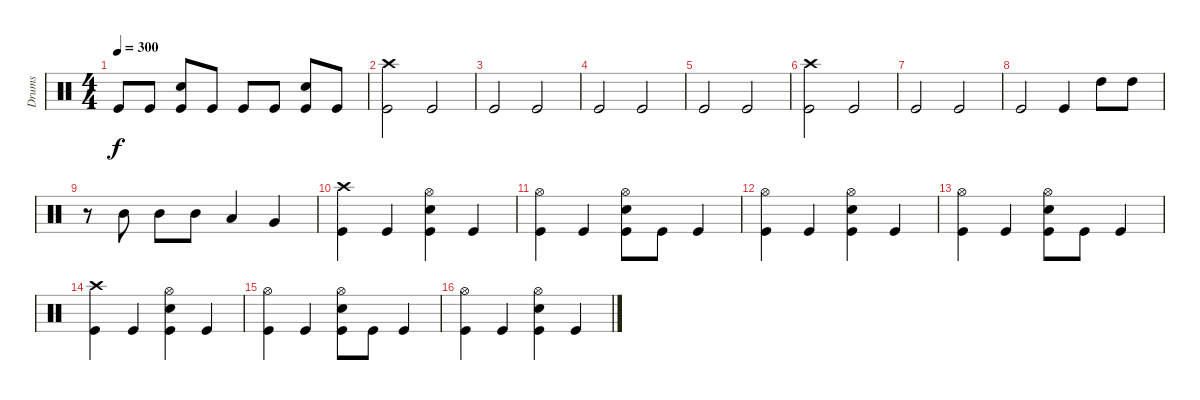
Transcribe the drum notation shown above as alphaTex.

\track ("Drums" "Drums") {instrument percussion}
\staff {score}
\articulation defaults
\ts (4 4)
\tempo 300
\clef neutral
\ks c "Kick (hit)".8{dy f} "Kick (hit)".8
("Electric Snare (hit)" "Kick (hit)").8 "Kick (hit)".8 "Kick (hit)".8 "Kick (hit)".8 ("Electric Snare (hit)" "Kick (hit)").8 "Kick (hit)".8 |
("Crash high (hit)" "Kick (hit)").2 "Kick (hit)".2 |
"Kick (hit)".2 "Kick (hit)".2 |
"Kick (hit)".2 "Kick (hit)".2 |
"Kick (hit)".2 "Kick (hit)".2 |
("Crash high (hit)" "Kick (hit)").2 "Kick (hit)".2 |
"Kick (hit)".2 "Kick (hit)".2 |
"Kick (hit)".2 "Kick (hit)".4 "High Tom (hit)".8 "High Tom (hit)".8 |
r.8 "Mid Tom (hit)".8 "Mid Tom (hit)".8 "Mid Tom (hit)".8 "Low Tom (hit)".4 "Very Low Tom (hit)".4 |
("Crash high (hit)" "Kick (hit)").4 "Kick (hit)".4 ("Hi-Hat (open)" "Electric Snare (hit)" "Kick (hit)").4 "Kick (hit)".4 |
("Hi-Hat (open)" "Kick (hit)").4 "Kick (hit)".4 ("Hi-Hat (open)" "Electric Snare (hit)" "Kick (hit)").8 "Kick (hit)".8 "Kick (hit)".4 |
("Hi-Hat (open)" "Kick (hit)").4 "Kick (hit)".4 ("Hi-Hat (open)" "Electric Snare (hit)" "Kick (hit)").4 "Kick (hit)".4 |
("Hi-Hat (open)" "Kick (hit)").4 "Kick (hit)".4 ("Hi-Hat (open)" "Electric Snare (hit)" "Kick (hit)").8 "Kick (hit)".8 "Kick (hit)".4 |
("Crash high (hit)" "Kick (hit)").4 "Kick (hit)".4 ("Hi-Hat (open)" "Electric Snare (hit)" "Kick (hit)").4 "Kick (hit)".4 |
("Hi-Hat (open)" "Kick (hit)").4 "Kick (hit)".4 ("Hi-Hat (open)" "Electric Snare (hit)" "Kick (hit)").8 "Kick (hit)".8 "Kick (hit)".4 |
("Hi-Hat (open)" "Kick (hit)").4 "Kick (hit)".4 ("Hi-Hat (open)" "Electric Snare (hit)" "Kick (hit)").4 "Kick (hit)".4
